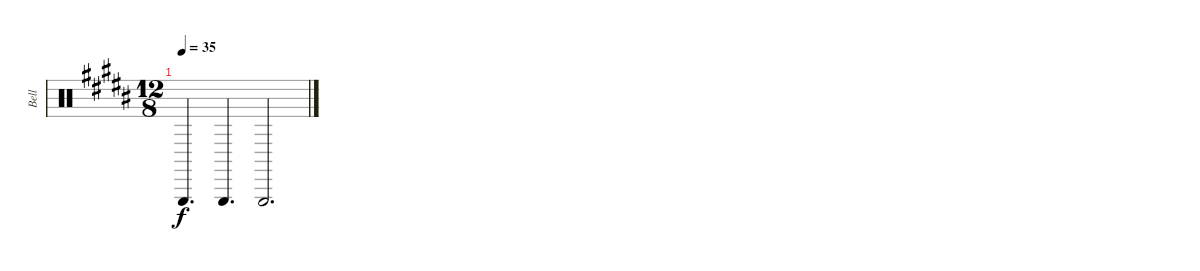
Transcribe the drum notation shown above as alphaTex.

\track ("Bell" "Bell") {instrument percussion}
\staff {score}
\articulation defaults
\ts (12 8)
\tempo 35
\clef neutral
\ks b "Triangle (hit)".4{d dy f} "Triangle (hit)".4{d} "Triangle (hit)".2{d}
